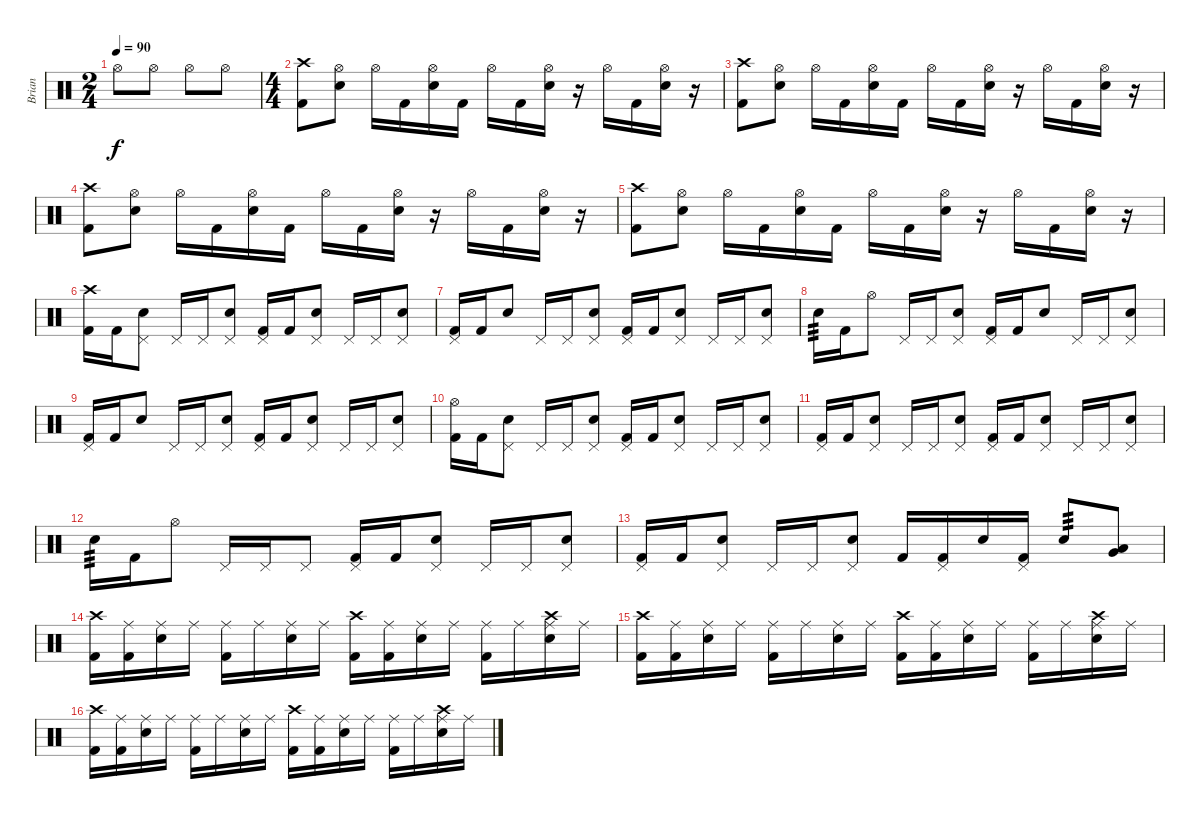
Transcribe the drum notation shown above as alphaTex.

\track ("Brian" "Brian") {instrument percussion}
\staff {score}
\articulation defaults
\ts (2 4)
\tempo 90
\clef neutral
\ks c "Hi-Hat (open)".8{dy f} "Hi-Hat (open)".8 "Hi-Hat (open)".8 "Hi-Hat (open)".8
|
\ts (4 4)
("Crash high (hit)" "Kick (hit) 2").8 ("Hi-Hat (open)" "Electric Snare (hit)").8 "Hi-Hat (open)".16 "Kick (hit) 2".16 ("Hi-Hat (open)" "Electric Snare (hit)").16 "Kick (hit) 2".16 "Hi-Hat (open)".16 "Kick (hit) 2".16 ("Hi-Hat (open)" "Electric Snare (hit)").16 r.16 "Hi-Hat (open)".16 "Kick (hit) 2".16 ("Hi-Hat (open)" "Electric Snare (hit)").16 r.16 |
("Crash high (hit)" "Kick (hit) 2").8 ("Hi-Hat (open)" "Electric Snare (hit)").8 "Hi-Hat (open)".16 "Kick (hit) 2".16 ("Hi-Hat (open)" "Electric Snare (hit)").16 "Kick (hit) 2".16 "Hi-Hat (open)".16 "Kick (hit) 2".16 ("Hi-Hat (open)" "Electric Snare (hit)").16 r.16 "Hi-Hat (open)".16 "Kick (hit) 2".16 ("Hi-Hat (open)" "Electric Snare (hit)").16 r.16 |
("Crash high (hit)" "Kick (hit) 2").8 ("Hi-Hat (open)" "Electric Snare (hit)").8 "Hi-Hat (open)".16 "Kick (hit) 2".16 ("Hi-Hat (open)" "Electric Snare (hit)").16 "Kick (hit) 2".16 "Hi-Hat (open)".16 "Kick (hit) 2".16 ("Hi-Hat (open)" "Electric Snare (hit)").16 r.16 "Hi-Hat (open)".16 "Kick (hit) 2".16 ("Hi-Hat (open)" "Electric Snare (hit)").16 r.16 |
("Crash high (hit)" "Kick (hit) 2").8 ("Hi-Hat (open)" "Electric Snare (hit)").8 "Hi-Hat (open)".16 "Kick (hit) 2".16 ("Hi-Hat (open)" "Electric Snare (hit)").16 "Kick (hit) 2".16 "Hi-Hat (open)".16 "Kick (hit) 2".16 ("Hi-Hat (open)" "Electric Snare (hit)").16 r.16 "Hi-Hat (open)".16 "Kick (hit) 2".16 ("Hi-Hat (open)" "Electric Snare (hit)").16 r.16 |
("Crash high (hit)" "Kick (hit) 2").16 "Kick (hit) 2".16 ("Pedal Hi-Hat (hit)" "Electric Snare (hit)").8 "Pedal Hi-Hat (hit)".16 "Pedal Hi-Hat (hit)".16 ("Pedal Hi-Hat (hit)" "Electric Snare (hit)").8 ("Pedal Hi-Hat (hit)" "Kick (hit) 2").16 "Kick (hit) 2".16 ("Pedal Hi-Hat (hit)" "Electric Snare (hit)").8 "Pedal Hi-Hat (hit)".16 "Pedal Hi-Hat (hit)".16 ("Pedal Hi-Hat (hit)" "Electric Snare (hit)").8 |
("Pedal Hi-Hat (hit)" "Kick (hit) 2").16 "Kick (hit) 2".16 "Electric Snare (hit)".8 "Pedal Hi-Hat (hit)".16 "Pedal Hi-Hat (hit)".16 ("Pedal Hi-Hat (hit)" "Electric Snare (hit)").8 ("Pedal Hi-Hat (hit)" "Kick (hit) 2").16 "Kick (hit) 2".16 ("Pedal Hi-Hat (hit)" "Electric Snare (hit)").8 "Pedal Hi-Hat (hit)".16 "Pedal Hi-Hat (hit)".16 ("Pedal Hi-Hat (hit)" "Electric Snare (hit)").8 |
"Electric Snare (hit)".16{tp 3} "Kick (hit) 2".16 "Hi-Hat (open)".8 "Pedal Hi-Hat (hit)".16 "Pedal Hi-Hat (hit)".16 ("Pedal Hi-Hat (hit)" "Electric Snare (hit)").8 ("Pedal Hi-Hat (hit)" "Kick (hit) 2").16 "Kick (hit) 2".16 "Electric Snare (hit)".8 "Pedal Hi-Hat (hit)".16 "Pedal Hi-Hat (hit)".16 ("Pedal Hi-Hat (hit)" "Electric Snare (hit)").8 |
("Pedal Hi-Hat (hit)" "Kick (hit) 2").16 "Kick (hit) 2".16 "Electric Snare (hit)".8 "Pedal Hi-Hat (hit)".16 "Pedal Hi-Hat (hit)".16 ("Pedal Hi-Hat (hit)" "Electric Snare (hit)").8 ("Pedal Hi-Hat (hit)" "Kick (hit) 2").16 "Kick (hit) 2".16 ("Pedal Hi-Hat (hit)" "Electric Snare (hit)").8 "Pedal Hi-Hat (hit)".16 "Pedal Hi-Hat (hit)".16 ("Pedal Hi-Hat (hit)" "Electric Snare (hit)").8 |
("Hi-Hat (open)" "Kick (hit) 2").16 "Kick (hit) 2".16 ("Pedal Hi-Hat (hit)" "Electric Snare (hit)").8 "Pedal Hi-Hat (hit)".16 "Pedal Hi-Hat (hit)".16 ("Pedal Hi-Hat (hit)" "Electric Snare (hit)").8 ("Pedal Hi-Hat (hit)" "Kick (hit) 2").16 "Kick (hit) 2".16 ("Pedal Hi-Hat (hit)" "Electric Snare (hit)").8 "Pedal Hi-Hat (hit)".16 "Pedal Hi-Hat (hit)".16 ("Pedal Hi-Hat (hit)" "Electric Snare (hit)").8 |
("Pedal Hi-Hat (hit)" "Kick (hit) 2").16 "Kick (hit) 2".16 ("Pedal Hi-Hat (hit)" "Electric Snare (hit)").8 "Pedal Hi-Hat (hit)".16 "Pedal Hi-Hat (hit)".16 ("Pedal Hi-Hat (hit)" "Electric Snare (hit)").8 ("Pedal Hi-Hat (hit)" "Kick (hit) 2").16 "Kick (hit) 2".16 ("Pedal Hi-Hat (hit)" "Electric Snare (hit)").8 "Pedal Hi-Hat (hit)".16 "Pedal Hi-Hat (hit)".16 ("Pedal Hi-Hat (hit)" "Electric Snare (hit)").8 |
"Electric Snare (hit)".16{tp 3} "Kick (hit) 2".16 "Hi-Hat (open)".8 "Pedal Hi-Hat (hit)".16 "Pedal Hi-Hat (hit)".16 "Pedal Hi-Hat (hit)".8 ("Pedal Hi-Hat (hit)" "Kick (hit) 2").16 "Kick (hit) 2".16 ("Pedal Hi-Hat (hit)" "Electric Snare (hit)").8 "Pedal Hi-Hat (hit)".16 "Pedal Hi-Hat (hit)".16 ("Pedal Hi-Hat (hit)" "Electric Snare (hit)").8 |
("Pedal Hi-Hat (hit)" "Kick (hit) 2").16 "Kick (hit) 2".16 ("Pedal Hi-Hat (hit)" "Electric Snare (hit)").8 "Pedal Hi-Hat (hit)".16 "Pedal Hi-Hat (hit)".16 ("Pedal Hi-Hat (hit)" "Electric Snare (hit)").8 "Kick (hit) 2".16 ("Pedal Hi-Hat (hit)" "Kick (hit) 2").16 "Electric Snare (hit)".16 ("Pedal Hi-Hat (hit)" "Kick (hit) 2").16 "Electric Snare (hit)".8{tp 3} ("Low Floor Tom (hit)" "Very Low Tom (hit)").8 |
("Crash high (hit)" "Kick (hit) 2").16 ("Ride (middle)" "Kick (hit) 2").16 ("Ride (middle)" "Electric Snare (hit)").16 "Ride (middle)".16 ("Ride (middle)" "Kick (hit) 2").16 "Ride (middle)".16 ("Ride (middle)" "Electric Snare (hit)").16 "Ride (middle)".16 ("Crash high (hit)" "Kick (hit) 2").16 ("Ride (middle)" "Kick (hit) 2").16 ("Ride (middle)" "Electric Snare (hit)").16 "Ride (middle)".16 ("Ride (middle)" "Kick (hit) 2").16 "Ride (middle)".16 ("Crash high (hit)" "Ride (middle)" "Electric Snare (hit)").16 "Ride (middle)".16 |
("Crash high (hit)" "Kick (hit) 2").16 ("Ride (middle)" "Kick (hit) 2").16 ("Ride (middle)" "Electric Snare (hit)").16 "Ride (middle)".16 ("Ride (middle)" "Kick (hit) 2").16 "Ride (middle)".16 ("Ride (middle)" "Electric Snare (hit)").16 "Ride (middle)".16 ("Crash high (hit)" "Kick (hit) 2").16 ("Ride (middle)" "Kick (hit) 2").16 ("Ride (middle)" "Electric Snare (hit)").16 "Ride (middle)".16 ("Ride (middle)" "Kick (hit) 2").16 "Ride (middle)".16 ("Crash high (hit)" "Ride (middle)" "Electric Snare (hit)").16 "Ride (middle)".16 |
("Crash high (hit)" "Kick (hit) 2").16 ("Ride (middle)" "Kick (hit) 2").16 ("Ride (middle)" "Electric Snare (hit)").16 "Ride (middle)".16 ("Ride (middle)" "Kick (hit) 2").16 "Ride (middle)".16 ("Ride (middle)" "Electric Snare (hit)").16 "Ride (middle)".16 ("Crash high (hit)" "Kick (hit) 2").16 ("Ride (middle)" "Kick (hit) 2").16 ("Ride (middle)" "Electric Snare (hit)").16 "Ride (middle)".16 ("Ride (middle)" "Kick (hit) 2").16 "Ride (middle)".16 ("Crash high (hit)" "Ride (middle)" "Electric Snare (hit)").16 "Ride (middle)".16
